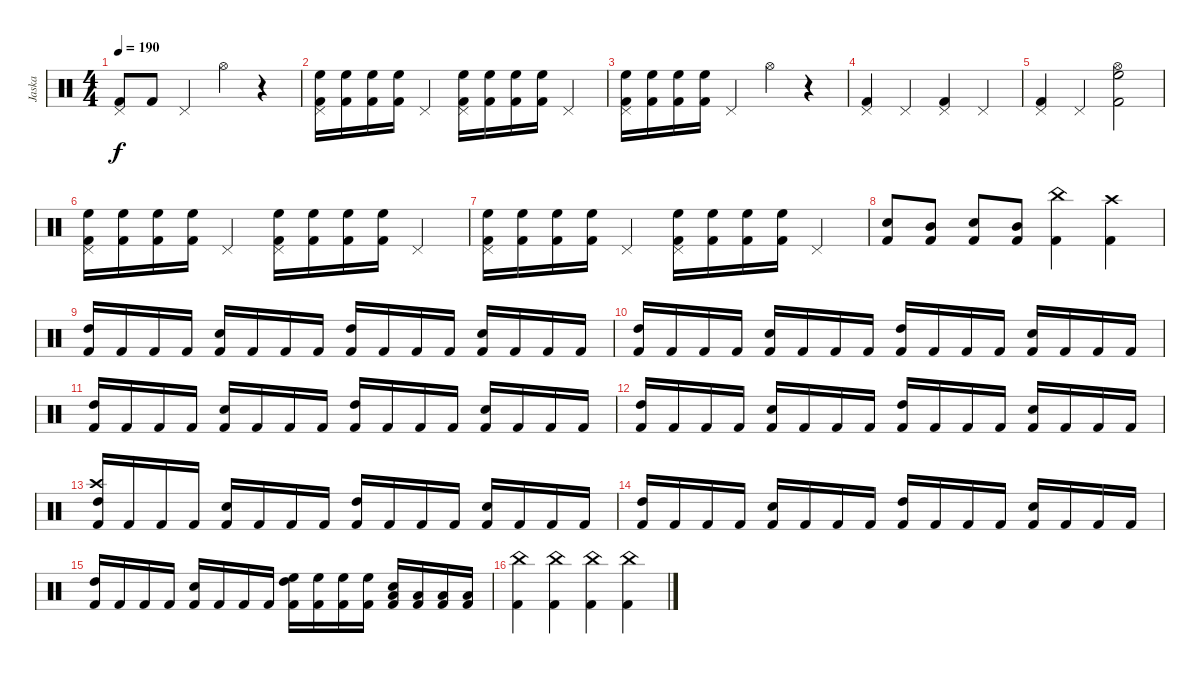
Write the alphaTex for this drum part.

\track ("Jaska" "Jaska") {instrument percussion}
\staff {score}
\articulation defaults
\ts (4 4)
\tempo 190
\clef neutral
\ks c
("Kick (hit) 2" "Pedal Hi-Hat (hit)").8{dy f} "Kick (hit) 2".8 "Pedal Hi-Hat (hit)".4 "Hi-Hat (open)".4 r.4 |
("Kick (hit) 2" "High Floor Tom (hit)" "Pedal Hi-Hat (hit)").16 ("Kick (hit) 2" "High Floor Tom (hit)").16 ("Kick (hit) 2" "High Floor Tom (hit)").16 ("Kick (hit) 2" "High Floor Tom (hit)").16 "Pedal Hi-Hat (hit)".4 ("Kick (hit) 2" "High Floor Tom (hit)" "Pedal Hi-Hat (hit)").16 ("Kick (hit) 2" "High Floor Tom (hit)").16 ("Kick (hit) 2" "High Floor Tom (hit)").16 ("Kick (hit) 2" "High Floor Tom (hit)").16 "Pedal Hi-Hat (hit)".4 |
("Kick (hit) 2" "High Floor Tom (hit)" "Pedal Hi-Hat (hit)").16 ("Kick (hit) 2" "High Floor Tom (hit)").16 ("Kick (hit) 2" "High Floor Tom (hit)").16 ("Kick (hit) 2" "High Floor Tom (hit)").16 "Pedal Hi-Hat (hit)".4 "Hi-Hat (open)".4 r.4 |
("Kick (hit) 2" "Pedal Hi-Hat (hit)").4 "Pedal Hi-Hat (hit)".4 ("Kick (hit) 2" "Pedal Hi-Hat (hit)").4 "Pedal Hi-Hat (hit)".4 |
("Kick (hit) 2" "Pedal Hi-Hat (hit)").4 "Pedal Hi-Hat (hit)".4 ("Kick (hit) 2" "High Floor Tom (hit)" "Hi-Hat (open)").2 |
("Kick (hit) 2" "High Floor Tom (hit)" "Pedal Hi-Hat (hit)").16 ("Kick (hit) 2" "High Floor Tom (hit)").16 ("Kick (hit) 2" "High Floor Tom (hit)").16 ("Kick (hit) 2" "High Floor Tom (hit)").16 "Pedal Hi-Hat (hit)".4 ("Kick (hit) 2" "High Floor Tom (hit)" "Pedal Hi-Hat (hit)").16 ("Kick (hit) 2" "High Floor Tom (hit)").16 ("Kick (hit) 2" "High Floor Tom (hit)").16 ("Kick (hit) 2" "High Floor Tom (hit)").16 "Pedal Hi-Hat (hit)".4 |
("Kick (hit) 2" "High Floor Tom (hit)" "Pedal Hi-Hat (hit)").16 ("Kick (hit) 2" "High Floor Tom (hit)").16 ("Kick (hit) 2" "High Floor Tom (hit)").16 ("Kick (hit) 2" "High Floor Tom (hit)").16 "Pedal Hi-Hat (hit)".4 ("Kick (hit) 2" "High Floor Tom (hit)" "Pedal Hi-Hat (hit)").16 ("Kick (hit) 2" "High Floor Tom (hit)").16 ("Kick (hit) 2" "High Floor Tom (hit)").16 ("Kick (hit) 2" "High Floor Tom (hit)").16 "Pedal Hi-Hat (hit)".4 |
("Kick (hit) 2" "Electric Snare (hit)").8 ("Kick (hit) 2" "Mid Tom (hit)").8 ("Kick (hit) 2" "Electric Snare (hit)").8 ("Kick (hit) 2" "Mid Tom (hit)").8 ("Kick (hit) 2" "China (hit)").4 ("Kick (hit) 2" "Crash high (hit)").4 |
("Kick (hit) 2" "High Tom (hit)").16 "Kick (hit) 2".16 "Kick (hit) 2".16 "Kick (hit) 2".16 ("Kick (hit) 2" "Snare (hit) 2").16 "Kick (hit) 2".16 "Kick (hit) 2".16 "Kick (hit) 2".16 ("Kick (hit) 2" "High Tom (hit)").16 "Kick (hit) 2".16 "Kick (hit) 2".16 "Kick (hit) 2".16 ("Kick (hit) 2" "Snare (hit) 2").16 "Kick (hit) 2".16 "Kick (hit) 2".16 "Kick (hit) 2".16 |
("Kick (hit) 2" "High Tom (hit)").16 "Kick (hit) 2".16 "Kick (hit) 2".16 "Kick (hit) 2".16 ("Kick (hit) 2" "Snare (hit) 2").16 "Kick (hit) 2".16 "Kick (hit) 2".16 "Kick (hit) 2".16 ("Kick (hit) 2" "High Tom (hit)").16 "Kick (hit) 2".16 "Kick (hit) 2".16 "Kick (hit) 2".16 ("Kick (hit) 2" "Snare (hit) 2").16 "Kick (hit) 2".16 "Kick (hit) 2".16 "Kick (hit) 2".16 |
("Kick (hit) 2" "High Tom (hit)").16 "Kick (hit) 2".16 "Kick (hit) 2".16 "Kick (hit) 2".16 ("Kick (hit) 2" "Snare (hit) 2").16 "Kick (hit) 2".16 "Kick (hit) 2".16 "Kick (hit) 2".16 ("Kick (hit) 2" "High Tom (hit)").16 "Kick (hit) 2".16 "Kick (hit) 2".16 "Kick (hit) 2".16 ("Kick (hit) 2" "Snare (hit) 2").16 "Kick (hit) 2".16 "Kick (hit) 2".16 "Kick (hit) 2".16 |
("Kick (hit) 2" "High Tom (hit)").16 "Kick (hit) 2".16 "Kick (hit) 2".16 "Kick (hit) 2".16 ("Kick (hit) 2" "Snare (hit) 2").16 "Kick (hit) 2".16 "Kick (hit) 2".16 "Kick (hit) 2".16 ("Kick (hit) 2" "High Tom (hit)").16 "Kick (hit) 2".16 "Kick (hit) 2".16 "Kick (hit) 2".16 ("Kick (hit) 2" "Snare (hit) 2").16 "Kick (hit) 2".16 "Kick (hit) 2".16 "Kick (hit) 2".16 |
("Kick (hit) 2" "High Tom (hit)" "Crash high (hit)").16 "Kick (hit) 2".16 "Kick (hit) 2".16 "Kick (hit) 2".16 ("Kick (hit) 2" "Snare (hit) 2").16 "Kick (hit) 2".16 "Kick (hit) 2".16 "Kick (hit) 2".16 ("Kick (hit) 2" "High Tom (hit)").16 "Kick (hit) 2".16 "Kick (hit) 2".16 "Kick (hit) 2".16 ("Kick (hit) 2" "Snare (hit) 2").16 "Kick (hit) 2".16 "Kick (hit) 2".16 "Kick (hit) 2".16 |
("Kick (hit) 2" "High Tom (hit)").16 "Kick (hit) 2".16 "Kick (hit) 2".16 "Kick (hit) 2".16 ("Kick (hit) 2" "Snare (hit) 2").16 "Kick (hit) 2".16 "Kick (hit) 2".16 "Kick (hit) 2".16 ("Kick (hit) 2" "High Tom (hit)").16 "Kick (hit) 2".16 "Kick (hit) 2".16 "Kick (hit) 2".16 ("Kick (hit) 2" "Snare (hit) 2").16 "Kick (hit) 2".16 "Kick (hit) 2".16 "Kick (hit) 2".16 |
("Kick (hit) 2" "High Tom (hit)").16 "Kick (hit) 2".16 "Kick (hit) 2".16 "Kick (hit) 2".16 ("Kick (hit) 2" "Snare (hit) 2").16 "Kick (hit) 2".16 "Kick (hit) 2".16 "Kick (hit) 2".16 ("Kick (hit) 2" "High Tom (hit)" "High Floor Tom (hit)").16 ("Kick (hit) 2" "High Floor Tom (hit)").16 ("Kick (hit) 2" "High Floor Tom (hit)").16 ("Kick (hit) 2" "High Floor Tom (hit)").16 ("Kick (hit) 2" "Snare (hit) 2" "Low Tom (hit)").16 ("Kick (hit) 2" "Low Tom (hit)").16 ("Kick (hit) 2" "Low Tom (hit)").16 ("Kick (hit) 2" "Low Tom (hit)").16 |
("Kick (hit) 2" "China (hit)").4 ("Kick (hit) 2" "China (hit)").4 ("Kick (hit) 2" "China (hit)").4 ("Kick (hit) 2" "China (hit)").4
